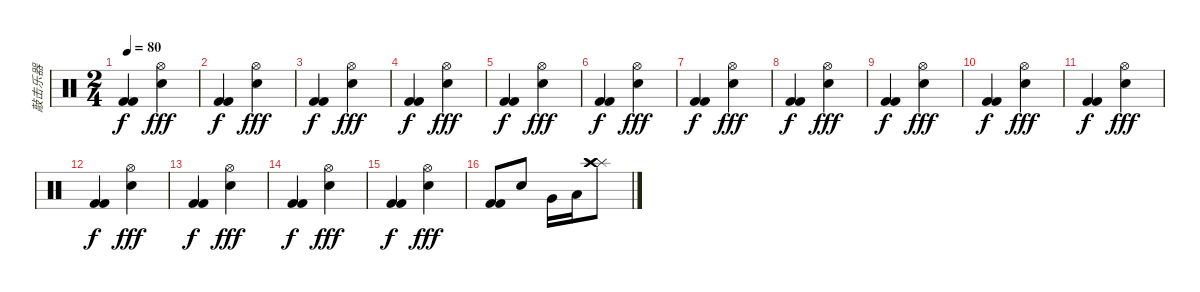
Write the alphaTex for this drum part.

\track ("敲击乐器" "敲击乐器") {instrument percussion}
\staff {score}
\articulation defaults
\ts (2 4)
\tempo 80
\clef neutral
\ks c
("Kick (hit) 2" "Kick (hit) 2").4{dy f} ("Hi-Hat (open)" "Snare (hit) 2").4{dy fff} |
("Kick (hit) 2" "Kick (hit) 2").4{dy f} ("Hi-Hat (open)" "Snare (hit) 2").4{dy fff} |
("Kick (hit) 2" "Kick (hit) 2").4{dy f} ("Hi-Hat (open)" "Snare (hit) 2").4{dy fff} |
("Kick (hit) 2" "Kick (hit) 2").4{dy f} ("Hi-Hat (open)" "Snare (hit) 2").4{dy fff} |
("Kick (hit) 2" "Kick (hit) 2").4{dy f} ("Hi-Hat (open)" "Snare (hit) 2").4{dy fff} |
("Kick (hit) 2" "Kick (hit) 2").4{dy f} ("Hi-Hat (open)" "Snare (hit) 2").4{dy fff} |
("Kick (hit) 2" "Kick (hit) 2").4{dy f} ("Hi-Hat (open)" "Snare (hit) 2").4{dy fff} |
("Kick (hit) 2" "Kick (hit) 2").4{dy f} ("Hi-Hat (open)" "Snare (hit) 2").4{dy fff} |
("Kick (hit) 2" "Kick (hit) 2").4{dy f} ("Hi-Hat (open)" "Snare (hit) 2").4{dy fff} |
("Kick (hit) 2" "Kick (hit) 2").4{dy f} ("Hi-Hat (open)" "Snare (hit) 2").4{dy fff} |
("Kick (hit) 2" "Kick (hit) 2").4{dy f} ("Hi-Hat (open)" "Snare (hit) 2").4{dy fff} |
("Kick (hit) 2" "Kick (hit) 2").4{dy f} ("Hi-Hat (open)" "Snare (hit) 2").4{dy fff} |
("Kick (hit) 2" "Kick (hit) 2").4{dy f} ("Hi-Hat (open)" "Snare (hit) 2").4{dy fff} |
("Kick (hit) 2" "Kick (hit) 2").4{dy f} ("Hi-Hat (open)" "Snare (hit) 2").4{dy fff} |
("Kick (hit) 2" "Kick (hit) 2").4{dy f} ("Hi-Hat (open)" "Snare (hit) 2").4{dy fff} |
("Kick (hit) 2" "Kick (hit) 2").8 "Snare (hit) 2".8 "Very Low Tom (hit)".16 "Low Floor Tom (hit)".16 ("Splash (hit)" "Crash high (hit)" "Crash high (hit)").8
